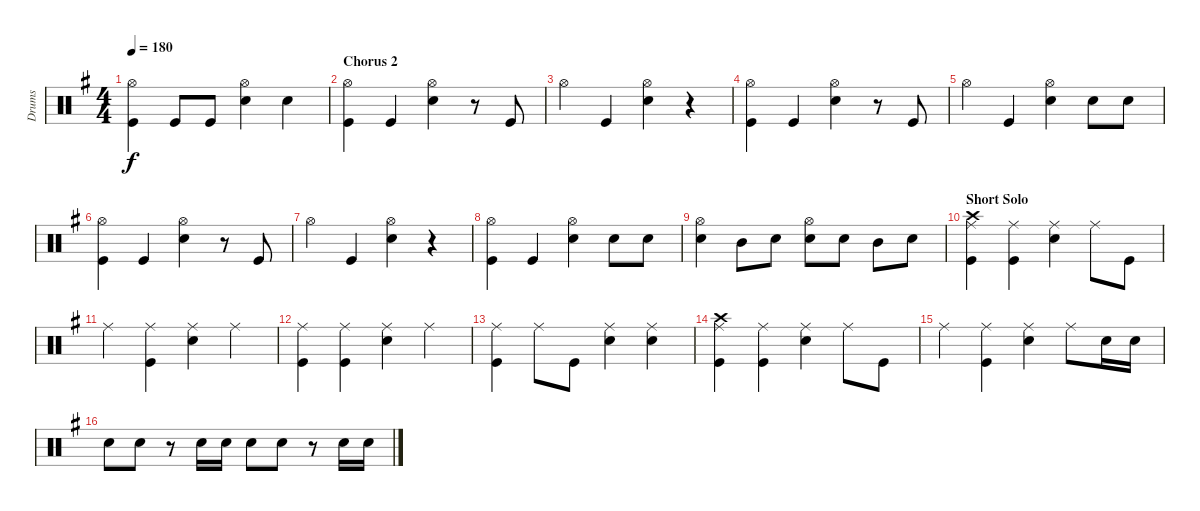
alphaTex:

\track ("Drums" "Drums") {instrument percussion}
\staff {score}
\articulation defaults
\ts (4 4)
\tempo 180
\clef neutral
\ks eminor
("Hi-Hat (open)" "Kick (hit)").4{dy f} "Kick (hit)".8 "Kick (hit)".8 ("Hi-Hat (open)" "Snare (hit) 2").4 "Snare (hit) 2".4 |
\section ("" "Chorus 2")
("Hi-Hat (open)" "Kick (hit)").4 "Kick (hit)".4 ("Hi-Hat (open)" "Snare (hit) 2").4 r.8 "Kick (hit)".8 |
"Hi-Hat (open)".4 "Kick (hit)".4 ("Hi-Hat (open)" "Snare (hit) 2").4 r.4 |
("Hi-Hat (open)" "Kick (hit)").4 "Kick (hit)".4 ("Hi-Hat (open)" "Snare (hit) 2").4 r.8 "Kick (hit)".8 |
"Hi-Hat (open)".4 "Kick (hit)".4 ("Hi-Hat (open)" "Snare (hit) 2").4 "Snare (hit) 2".8 "Snare (hit) 2".8 |
("Hi-Hat (open)" "Kick (hit)").4 "Kick (hit)".4 ("Hi-Hat (open)" "Snare (hit) 2").4 r.8 "Kick (hit)".8 |
"Hi-Hat (open)".4 "Kick (hit)".4 ("Hi-Hat (open)" "Snare (hit) 2").4 r.4 |
("Hi-Hat (open)" "Kick (hit)").4 "Kick (hit)".4 ("Hi-Hat (open)" "Snare (hit) 2").4 "Snare (hit) 2".8 "Snare (hit) 2".8 |
("Hi-Hat (open)" "Snare (hit) 2").4 "Mid Tom (hit)".8 "Snare (hit) 2".8 ("Hi-Hat (open)" "Snare (hit) 2").8 "Snare (hit) 2".8 "Mid Tom (hit)".8 "Snare (hit) 2".8 |
\section ("" "Short Solo")
("Ride (middle)" "Crash high (hit)" "Kick (hit)").4 ("Ride (middle)" "Kick (hit)").4 ("Ride (middle)" "Snare (hit) 2").4 "Ride (middle)".8 "Kick (hit)".8 |
"Ride (middle)".4 ("Ride (middle)" "Kick (hit)").4 ("Ride (middle)" "Snare (hit) 2").4 "Ride (middle)".4 |
("Ride (middle)" "Kick (hit)").4 ("Ride (middle)" "Kick (hit)").4 ("Ride (middle)" "Snare (hit) 2").4 "Ride (middle)".4 |
("Ride (middle)" "Kick (hit)").4 "Ride (middle)".8 "Kick (hit)".8 ("Ride (middle)" "Snare (hit) 2").4 ("Ride (middle)" "Snare (hit) 2").4 |
("Ride (middle)" "Crash high (hit)" "Kick (hit)").4 ("Ride (middle)" "Kick (hit)").4 ("Ride (middle)" "Snare (hit) 2").4 "Ride (middle)".8 "Kick (hit)".8 |
"Ride (middle)".4 ("Ride (middle)" "Kick (hit)").4 ("Ride (middle)" "Snare (hit) 2").4 "Ride (middle)".8 "Snare (hit) 2".16 "Snare (hit) 2".16 |
"Snare (hit) 2".8 "Snare (hit) 2".8 r.8 "Snare (hit) 2".16 "Snare (hit) 2".16 "Snare (hit) 2".8 "Snare (hit) 2".8 r.8 "Snare (hit) 2".16 "Snare (hit) 2".16
